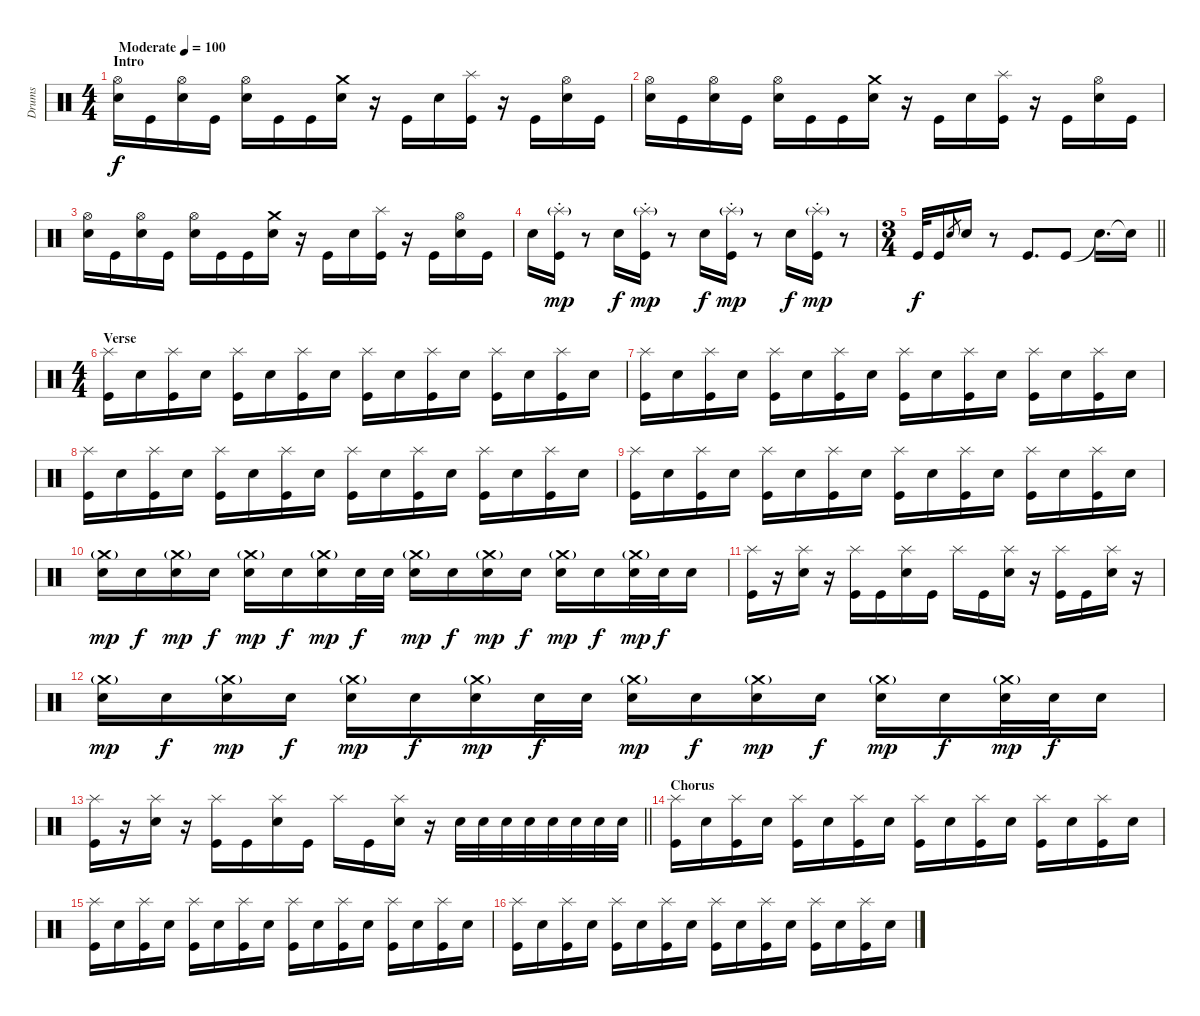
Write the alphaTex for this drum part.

\track ("Drums" "Drums") {instrument percussion}
\staff {score}
\articulation defaults
\ts (4 4)
\section ("" "Intro")
\tempo (100 "Moderate")
\clef neutral
\ks c
("Hi-Hat (open)" "Electric Snare (hit)").16{dy f} "Kick (hit)".16 ("Hi-Hat (open)" "Electric Snare (hit)").16 "Kick (hit)".16 ("Hi-Hat (open)" "Electric Snare (hit)").16 "Kick (hit)".16 "Kick (hit)".16 ("Crash medium (hit)" "Electric Snare (hit)").16 r.16 "Kick (hit)".16 "Electric Snare (hit)".16 ("Splash (hit)" "Kick (hit)").16 r.16 "Kick (hit)".16 ("Hi-Hat (open)" "Electric Snare (hit)").16 "Kick (hit)".16 |
("Hi-Hat (open)" "Electric Snare (hit)").16 "Kick (hit)".16 ("Hi-Hat (open)" "Electric Snare (hit)").16 "Kick (hit)".16 ("Hi-Hat (open)" "Electric Snare (hit)").16 "Kick (hit)".16 "Kick (hit)".16 ("Crash medium (hit)" "Electric Snare (hit)").16 r.16 "Kick (hit)".16 "Electric Snare (hit)".16 ("Splash (hit)" "Kick (hit)").16 r.16 "Kick (hit)".16 ("Hi-Hat (open)" "Electric Snare (hit)").16 "Kick (hit)".16 |
("Hi-Hat (open)" "Electric Snare (hit)").16 "Kick (hit)".16 ("Hi-Hat (open)" "Electric Snare (hit)").16 "Kick (hit)".16 ("Hi-Hat (open)" "Electric Snare (hit)").16 "Kick (hit)".16 "Kick (hit)".16 ("Crash medium (hit)" "Electric Snare (hit)").16 r.16 "Kick (hit)".16 "Electric Snare (hit)".16 ("Splash (hit)" "Kick (hit)").16 r.16 "Kick (hit)".16 ("Hi-Hat (open)" "Electric Snare (hit)").16 "Kick (hit)".16 |
"Electric Snare (hit)".16 ("Splash (hit)"{g st} "Kick (hit)").16{dy mp} r.8 "Electric Snare (hit)".16{dy f} ("Splash (hit)"{g st} "Kick (hit)").16{dy mp} r.8 "Electric Snare (hit)".16{dy f} ("Splash (hit)"{g st} "Kick (hit)").16{dy mp} r.8 "Electric Snare (hit)".16{dy f} ("Splash (hit)"{g st} "Kick (hit)").16{dy mp} r.8 |
\ts (3 4)
\barLineRight lightlight "Kick (hit)".32{dy f} "Kick (hit)".16 "Electric Snare (hit)".8{gr} "Electric Snare (hit)".16
r.8 "Kick (hit)".8{d} "Kick (hit)".8 "Snare (hit)"{t}.16{d} "Snare (hit)"{t}.16 |
\ts (4 4)
\section ("" "Verse")
("Splash (hit)" "Kick (hit)").16 "Electric Snare (hit)".16 ("Splash (hit)" "Kick (hit)").16 "Electric Snare (hit)".16 ("Splash (hit)" "Kick (hit)").16 "Electric Snare (hit)".16 ("Splash (hit)" "Kick (hit)").16 "Electric Snare (hit)".16 ("Splash (hit)" "Kick (hit)").16 "Electric Snare (hit)".16 ("Splash (hit)" "Kick (hit)").16 "Electric Snare (hit)".16 ("Splash (hit)" "Kick (hit)").16 "Electric Snare (hit)".16 ("Splash (hit)" "Kick (hit)").16 "Electric Snare (hit)".16 |
("Splash (hit)" "Kick (hit)").16 "Electric Snare (hit)".16 ("Splash (hit)" "Kick (hit)").16 "Electric Snare (hit)".16 ("Splash (hit)" "Kick (hit)").16 "Electric Snare (hit)".16 ("Splash (hit)" "Kick (hit)").16 "Electric Snare (hit)".16 ("Splash (hit)" "Kick (hit)").16 "Electric Snare (hit)".16 ("Splash (hit)" "Kick (hit)").16 "Electric Snare (hit)".16 ("Splash (hit)" "Kick (hit)").16 "Electric Snare (hit)".16 ("Splash (hit)" "Kick (hit)").16 "Electric Snare (hit)".16 |
("Splash (hit)" "Kick (hit)").16 "Electric Snare (hit)".16 ("Splash (hit)" "Kick (hit)").16 "Electric Snare (hit)".16 ("Splash (hit)" "Kick (hit)").16 "Electric Snare (hit)".16 ("Splash (hit)" "Kick (hit)").16 "Electric Snare (hit)".16 ("Splash (hit)" "Kick (hit)").16 "Electric Snare (hit)".16 ("Splash (hit)" "Kick (hit)").16 "Electric Snare (hit)".16 ("Splash (hit)" "Kick (hit)").16 "Electric Snare (hit)".16 ("Splash (hit)" "Kick (hit)").16 "Electric Snare (hit)".16 |
("Splash (hit)" "Kick (hit)").16 "Electric Snare (hit)".16 ("Splash (hit)" "Kick (hit)").16 "Electric Snare (hit)".16 ("Splash (hit)" "Kick (hit)").16 "Electric Snare (hit)".16 ("Splash (hit)" "Kick (hit)").16 "Electric Snare (hit)".16 ("Splash (hit)" "Kick (hit)").16 "Electric Snare (hit)".16 ("Splash (hit)" "Kick (hit)").16 "Electric Snare (hit)".16 ("Splash (hit)" "Kick (hit)").16 "Electric Snare (hit)".16 ("Splash (hit)" "Kick (hit)").16 "Electric Snare (hit)".16 |
("Crash medium (hit)"{g} "Electric Snare (hit)").16{dy mp} "Electric Snare (hit)".16{dy f} ("Crash medium (hit)"{g} "Electric Snare (hit)").16{dy mp} "Electric Snare (hit)".16{dy f} ("Crash medium (hit)"{g} "Electric Snare (hit)").16{dy mp} "Electric Snare (hit)".16{dy f} ("Crash medium (hit)"{g} "Electric Snare (hit)").16{dy mp} "Electric Snare (hit)".32{dy f} "Electric Snare (hit)".32 ("Crash medium (hit)"{g} "Electric Snare (hit)").16{dy mp} "Electric Snare (hit)".16{dy f} ("Crash medium (hit)"{g} "Electric Snare (hit)").16{dy mp} "Electric Snare (hit)".16{dy f} ("Crash medium (hit)"{g} "Electric Snare (hit)").16{dy mp} "Electric Snare (hit)".16{dy f} ("Crash medium (hit)"{g} "Electric Snare (hit)").32{dy mp} "Electric Snare (hit)".32{dy f} "Electric Snare (hit)".16 |
("Splash (hit)" "Kick (hit)").16 r.16 ("Splash (hit)" "Electric Snare (hit)").16 r.16 ("Splash (hit)" "Kick (hit)").16 "Kick (hit)".16 ("Splash (hit)" "Electric Snare (hit)").16 "Kick (hit)".16 "Splash (hit)".16 "Kick (hit)".16 ("Splash (hit)" "Electric Snare (hit)").16 r.16 ("Splash (hit)" "Kick (hit)").16 "Kick (hit)".16 ("Splash (hit)" "Electric Snare (hit)").16 r.16 |
("Crash medium (hit)"{g} "Electric Snare (hit)").16{dy mp} "Electric Snare (hit)".16{dy f} ("Crash medium (hit)"{g} "Electric Snare (hit)").16{dy mp} "Electric Snare (hit)".16{dy f} ("Crash medium (hit)"{g} "Electric Snare (hit)").16{dy mp} "Electric Snare (hit)".16{dy f} ("Crash medium (hit)"{g} "Electric Snare (hit)").16{dy mp} "Electric Snare (hit)".32{dy f} "Electric Snare (hit)".32 ("Crash medium (hit)"{g} "Electric Snare (hit)").16{dy mp} "Electric Snare (hit)".16{dy f} ("Crash medium (hit)"{g} "Electric Snare (hit)").16{dy mp} "Electric Snare (hit)".16{dy f} ("Crash medium (hit)"{g} "Electric Snare (hit)").16{dy mp} "Electric Snare (hit)".16{dy f} ("Crash medium (hit)"{g} "Electric Snare (hit)").32{dy mp} "Electric Snare (hit)".32{dy f} "Electric Snare (hit)".16 |
\barLineRight lightlight
("Splash (hit)" "Kick (hit)").16 r.16 ("Splash (hit)" "Electric Snare (hit)").16 r.16 ("Splash (hit)" "Kick (hit)").16 "Kick (hit)".16 ("Splash (hit)" "Electric Snare (hit)").16 "Kick (hit)".16 "Splash (hit)".16 "Kick (hit)".16 ("Splash (hit)" "Electric Snare (hit)").16 r.16 "Electric Snare (hit)".32 "Electric Snare (hit)".32 "Electric Snare (hit)".32 "Electric Snare (hit)".32 "Electric Snare (hit)".32 "Electric Snare (hit)".32 "Electric Snare (hit)".32 "Electric Snare (hit)".32 |
\section ("" "Chorus ")
("Splash (hit)" "Kick (hit)").16 "Electric Snare (hit)".16 ("Splash (hit)" "Kick (hit)").16 "Electric Snare (hit)".16 ("Splash (hit)" "Kick (hit)").16 "Electric Snare (hit)".16 ("Splash (hit)" "Kick (hit)").16 "Electric Snare (hit)".16 ("Splash (hit)" "Kick (hit)").16 "Electric Snare (hit)".16 ("Splash (hit)" "Kick (hit)").16 "Electric Snare (hit)".16 ("Splash (hit)" "Kick (hit)").16 "Electric Snare (hit)".16 ("Splash (hit)" "Kick (hit)").16 "Electric Snare (hit)".16 |
("Splash (hit)" "Kick (hit)").16 "Electric Snare (hit)".16 ("Splash (hit)" "Kick (hit)").16 "Electric Snare (hit)".16 ("Splash (hit)" "Kick (hit)").16 "Electric Snare (hit)".16 ("Splash (hit)" "Kick (hit)").16 "Electric Snare (hit)".16 ("Splash (hit)" "Kick (hit)").16 "Electric Snare (hit)".16 ("Splash (hit)" "Kick (hit)").16 "Electric Snare (hit)".16 ("Splash (hit)" "Kick (hit)").16 "Electric Snare (hit)".16 ("Splash (hit)" "Kick (hit)").16 "Electric Snare (hit)".16 |
("Splash (hit)" "Kick (hit)").16 "Electric Snare (hit)".16 ("Splash (hit)" "Kick (hit)").16 "Electric Snare (hit)".16 ("Splash (hit)" "Kick (hit)").16 "Electric Snare (hit)".16 ("Splash (hit)" "Kick (hit)").16 "Electric Snare (hit)".16 ("Splash (hit)" "Kick (hit)").16 "Electric Snare (hit)".16 ("Splash (hit)" "Kick (hit)").16 "Electric Snare (hit)".16 ("Splash (hit)" "Kick (hit)").16 "Electric Snare (hit)".16 ("Splash (hit)" "Kick (hit)").16 "Electric Snare (hit)".16
